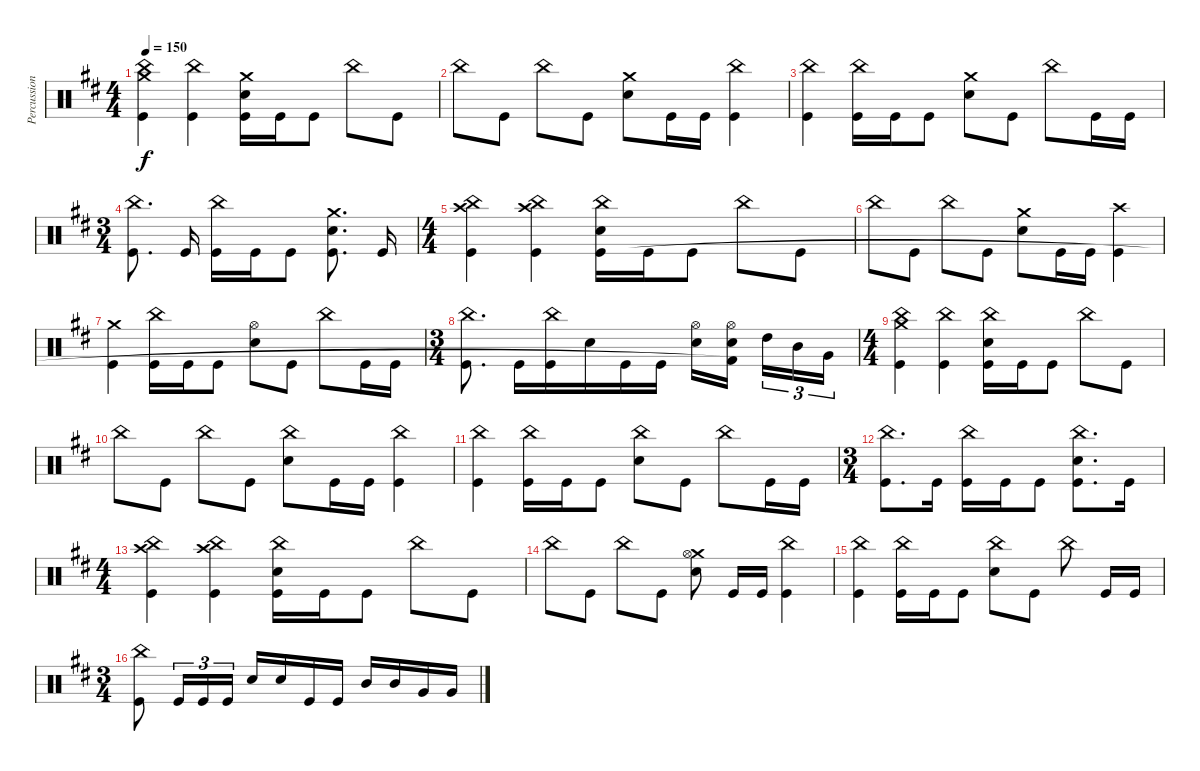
\track ("Percussion" "Percussion") {instrument percussion}
\staff {score}
\articulation defaults
\ts (4 4)
\tempo 150
\clef neutral
\ks bminor
("Crash medium (hit)" "China (hit)" "Kick (hit)").4{dy f} ("China (hit)" "Kick (hit)").4 ("Crash medium (hit)" "Electric Snare (hit)" "Kick (hit)").16 "Kick (hit)".16 "Kick (hit)".8 "China (hit)".8 "Kick (hit)".8 |
"China (hit)".8 "Kick (hit)".8 "China (hit)".8 "Kick (hit)".8 ("Crash medium (hit)" "Electric Snare (hit)").8 "Kick (hit)".16 "Kick (hit)".16 ("China (hit)" "Kick (hit)").4 |
("China (hit)" "Kick (hit)").4 ("China (hit)" "Kick (hit)").16 "Kick (hit)".16 "Kick (hit)".8 ("Crash medium (hit)" "Electric Snare (hit)").8 "Kick (hit)".8 "China (hit)".8 "Kick (hit)".16 "Kick (hit)".16 |
\ts (3 4)
("China (hit)" "Kick (hit)").8{d beam split} "Kick (hit)".16 ("China (hit)" "Kick (hit)").16 "Kick (hit)".16 "Kick (hit)".8 ("Crash medium (hit)" "Electric Snare (hit)" "Kick (hit)").8{d beam split} "Kick (hit)".16 |
\ts (4 4)
("China (hit)" "Crash high (hit)" "Kick (hit)").4 ("China (hit)" "Crash high (hit)" "Kick (hit)").4 ("China (hit)" "Electric Snare (hit)" "Kick (hit)").16 "Kick (hit)".16 "Kick (hit)".8 "China (hit)".8 "Kick (hit)".8 |
"China (hit)".8 "Kick (hit)".8 "China (hit)".8 "Kick (hit)".8 ("Crash medium (hit)" "Electric Snare (hit)").8 "Kick (hit)".16 "Kick (hit)".16 ("Crash high (hit)" "Kick (hit)").4 |
("Crash medium (hit)" "Kick (hit)").4 ("China (hit)" "Kick (hit)").16 "Kick (hit)".16 "Kick (hit)".8 ("Hi-Hat (open)" "Electric Snare (hit)").8 "Kick (hit)".8 "China (hit)".8 "Kick (hit)".16 "Kick (hit)".16 |
\ts (3 4)
("China (hit)" "Kick (hit)").8{d beam split} "Kick (hit)".16{beam merge} ("China (hit)" "Kick (hit)").16 "Electric Snare (hit)".16 "Kick (hit)".16 "Kick (hit)".16 ("Hi-Hat (open)" "Electric Snare (hit)").16 ("Hi-Hat (open)" "Electric Snare (hit)" "Kick (hit) 2"{t}).16{beam split} "High Tom (hit)".16{tu (3 2) beam merge} "Mid Tom (hit)".16{tu (3 2)} "Very Low Tom (hit)".16{tu (3 2)} |
\ts (4 4)
("Crash medium (hit)" "China (hit)" "Kick (hit)").4 ("China (hit)" "Kick (hit)").4 ("China (hit)" "Electric Snare (hit)" "Kick (hit)").16 "Kick (hit)".16 "Kick (hit)".8 "China (hit)".8 "Kick (hit)".8 |
"China (hit)".8 "Kick (hit)".8 "China (hit)".8 "Kick (hit)".8 ("China (hit)" "Electric Snare (hit)").8 "Kick (hit)".16 "Kick (hit)".16 ("China (hit)" "Kick (hit)").4 |
("China (hit)" "Kick (hit)").4 ("China (hit)" "Kick (hit)").16 "Kick (hit)".16 "Kick (hit)".8 ("China (hit)" "Electric Snare (hit)").8 "Kick (hit)".8 "China (hit)".8 "Kick (hit)".16 "Kick (hit)".16 |
\ts (3 4)
("China (hit)" "Kick (hit)").8{d} "Kick (hit)".16 ("China (hit)" "Kick (hit)").16 "Kick (hit)".16 "Kick (hit)".8 ("China (hit)" "Electric Snare (hit)" "Kick (hit)").8{d} "Kick (hit)".16 |
\ts (4 4)
("China (hit)" "Crash high (hit)" "Kick (hit)").4 ("China (hit)" "Crash high (hit)" "Kick (hit)").4 ("China (hit)" "Electric Snare (hit)" "Kick (hit)").16 "Kick (hit)".16 "Kick (hit)".8 "China (hit)".8 "Kick (hit)".8 |
"China (hit)".8 "Kick (hit)".8 "China (hit)".8 "Kick (hit)".8 ("Crash medium (hit)" "Hi-Hat (open)" "Electric Snare (hit)").8{beam split} "Kick (hit)".16 "Kick (hit)".16 ("China (hit)" "Kick (hit)").4 |
("China (hit)" "Kick (hit)").4 ("China (hit)" "Kick (hit)").16 "Kick (hit)".16 "Kick (hit)".8 ("China (hit)" "Electric Snare (hit)").8 "Kick (hit)".8 "China (hit)".8{beam split} "Kick (hit)".16 "Kick (hit)".16 |
\ts (3 4)
("China (hit)" "Kick (hit)").8{beam split} "Kick (hit)".16{tu (3 2)} "Kick (hit)".16{tu (3 2)} "Kick (hit)".16{tu (3 2)} "Electric Snare (hit)".16 "Electric Snare (hit)".16 "Kick (hit)".16 "Kick (hit)".16 "Mid Tom (hit)".16 "Mid Tom (hit)".16 "Very Low Tom (hit)".16 "Very Low Tom (hit)".16
